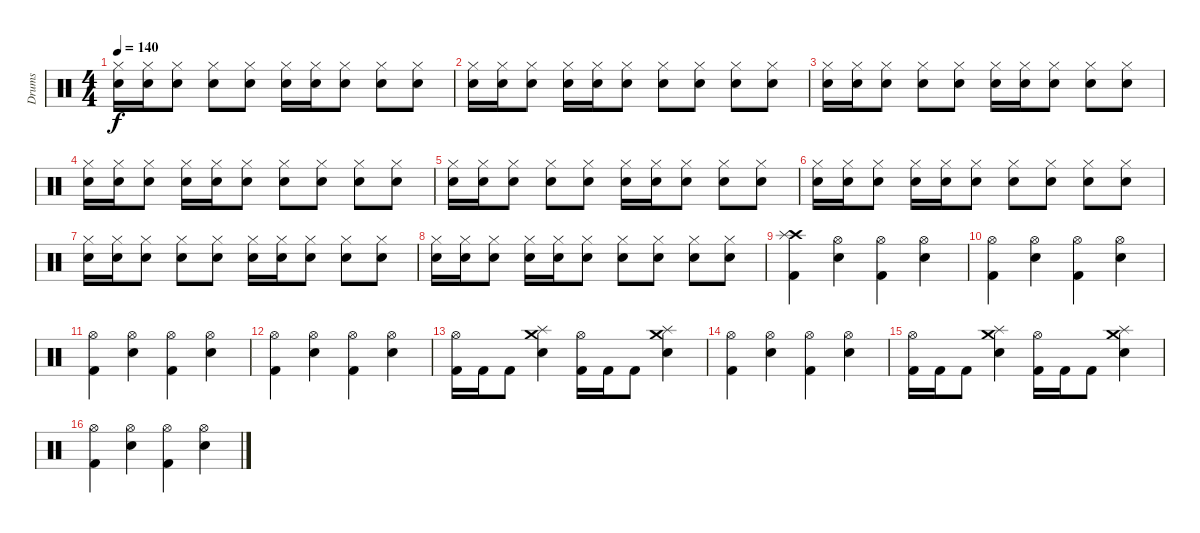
\track ("Drums" "Drums") {instrument percussion}
\staff {score}
\articulation defaults
\ts (4 4)
\tempo 140
\clef neutral
\ks c
("Hi-Hat (closed)" "Snare (hit) 2").16{dy f} ("Hi-Hat (closed)" "Snare (hit) 2").16 ("Hi-Hat (closed)" "Snare (hit) 2").8 ("Hi-Hat (closed)" "Snare (hit) 2").8 ("Hi-Hat (closed)" "Snare (hit) 2").8 ("Hi-Hat (closed)" "Snare (hit) 2").16 ("Hi-Hat (closed)" "Snare (hit) 2").16 ("Hi-Hat (closed)" "Snare (hit) 2").8 ("Hi-Hat (closed)" "Snare (hit) 2").8 ("Hi-Hat (closed)" "Snare (hit) 2").8 |
("Hi-Hat (closed)" "Snare (hit) 2").16 ("Hi-Hat (closed)" "Snare (hit) 2").16 ("Hi-Hat (closed)" "Snare (hit) 2").8 ("Hi-Hat (closed)" "Snare (hit) 2").16 ("Hi-Hat (closed)" "Snare (hit) 2").16 ("Hi-Hat (closed)" "Snare (hit) 2").8 ("Hi-Hat (closed)" "Snare (hit) 2").8 ("Hi-Hat (closed)" "Snare (hit) 2").8 ("Hi-Hat (closed)" "Snare (hit) 2").8 ("Hi-Hat (closed)" "Snare (hit) 2").8 |
("Hi-Hat (closed)" "Snare (hit) 2").16 ("Hi-Hat (closed)" "Snare (hit) 2").16 ("Hi-Hat (closed)" "Snare (hit) 2").8 ("Hi-Hat (closed)" "Snare (hit) 2").8 ("Hi-Hat (closed)" "Snare (hit) 2").8 ("Hi-Hat (closed)" "Snare (hit) 2").16 ("Hi-Hat (closed)" "Snare (hit) 2").16 ("Hi-Hat (closed)" "Snare (hit) 2").8 ("Hi-Hat (closed)" "Snare (hit) 2").8 ("Hi-Hat (closed)" "Snare (hit) 2").8 |
("Hi-Hat (closed)" "Snare (hit) 2").16 ("Hi-Hat (closed)" "Snare (hit) 2").16 ("Hi-Hat (closed)" "Snare (hit) 2").8 ("Hi-Hat (closed)" "Snare (hit) 2").16 ("Hi-Hat (closed)" "Snare (hit) 2").16 ("Hi-Hat (closed)" "Snare (hit) 2").8 ("Hi-Hat (closed)" "Snare (hit) 2").8 ("Hi-Hat (closed)" "Snare (hit) 2").8 ("Hi-Hat (closed)" "Snare (hit) 2").8 ("Hi-Hat (closed)" "Snare (hit) 2").8 |
("Hi-Hat (closed)" "Snare (hit) 2").16 ("Hi-Hat (closed)" "Snare (hit) 2").16 ("Hi-Hat (closed)" "Snare (hit) 2").8 ("Hi-Hat (closed)" "Snare (hit) 2").8 ("Hi-Hat (closed)" "Snare (hit) 2").8 ("Hi-Hat (closed)" "Snare (hit) 2").16 ("Hi-Hat (closed)" "Snare (hit) 2").16 ("Hi-Hat (closed)" "Snare (hit) 2").8 ("Hi-Hat (closed)" "Snare (hit) 2").8 ("Hi-Hat (closed)" "Snare (hit) 2").8 |
("Hi-Hat (closed)" "Snare (hit) 2").16 ("Hi-Hat (closed)" "Snare (hit) 2").16 ("Hi-Hat (closed)" "Snare (hit) 2").8 ("Hi-Hat (closed)" "Snare (hit) 2").16 ("Hi-Hat (closed)" "Snare (hit) 2").16 ("Hi-Hat (closed)" "Snare (hit) 2").8 ("Hi-Hat (closed)" "Snare (hit) 2").8 ("Hi-Hat (closed)" "Snare (hit) 2").8 ("Hi-Hat (closed)" "Snare (hit) 2").8 ("Hi-Hat (closed)" "Snare (hit) 2").8 |
("Hi-Hat (closed)" "Snare (hit) 2").16 ("Hi-Hat (closed)" "Snare (hit) 2").16 ("Hi-Hat (closed)" "Snare (hit) 2").8 ("Hi-Hat (closed)" "Snare (hit) 2").8 ("Hi-Hat (closed)" "Snare (hit) 2").8 ("Hi-Hat (closed)" "Snare (hit) 2").16 ("Hi-Hat (closed)" "Snare (hit) 2").16 ("Hi-Hat (closed)" "Snare (hit) 2").8 ("Hi-Hat (closed)" "Snare (hit) 2").8 ("Hi-Hat (closed)" "Snare (hit) 2").8 |
("Hi-Hat (closed)" "Snare (hit) 2").16 ("Hi-Hat (closed)" "Snare (hit) 2").16 ("Hi-Hat (closed)" "Snare (hit) 2").8 ("Hi-Hat (closed)" "Snare (hit) 2").16 ("Hi-Hat (closed)" "Snare (hit) 2").16 ("Hi-Hat (closed)" "Snare (hit) 2").8 ("Hi-Hat (closed)" "Snare (hit) 2").8 ("Hi-Hat (closed)" "Snare (hit) 2").8 ("Hi-Hat (closed)" "Snare (hit) 2").8 ("Hi-Hat (closed)" "Snare (hit) 2").8 |
("Crash high (hit)" "Splash (hit)" "Kick (hit) 2").4 ("Hi-Hat (open)" "Snare (hit) 2").4 ("Hi-Hat (open)" "Kick (hit) 2").4 ("Hi-Hat (open)" "Snare (hit) 2").4 |
("Hi-Hat (open)" "Kick (hit) 2").4 ("Hi-Hat (open)" "Snare (hit) 2").4 ("Hi-Hat (open)" "Kick (hit) 2").4 ("Hi-Hat (open)" "Snare (hit) 2").4 |
("Hi-Hat (open)" "Kick (hit) 2").4 ("Hi-Hat (open)" "Snare (hit) 2").4 ("Hi-Hat (open)" "Kick (hit) 2").4 ("Hi-Hat (open)" "Snare (hit) 2").4 |
("Hi-Hat (open)" "Kick (hit) 2").4 ("Hi-Hat (open)" "Snare (hit) 2").4 ("Hi-Hat (open)" "Kick (hit) 2").4 ("Hi-Hat (open)" "Snare (hit) 2").4 |
("Hi-Hat (open)" "Kick (hit) 2").16 "Kick (hit) 2".16 "Kick (hit) 2".8 ("Crash medium (hit)" "Splash (hit)" "Snare (hit) 2").4 ("Hi-Hat (open)" "Kick (hit) 2").16 "Kick (hit) 2".16 "Kick (hit) 2".8 ("Crash medium (hit)" "Splash (hit)" "Snare (hit) 2").4 |
("Hi-Hat (open)" "Kick (hit) 2").4 ("Hi-Hat (open)" "Snare (hit) 2").4 ("Hi-Hat (open)" "Kick (hit) 2").4 ("Hi-Hat (open)" "Snare (hit) 2").4 |
("Hi-Hat (open)" "Kick (hit) 2").16 "Kick (hit) 2".16 "Kick (hit) 2".8 ("Crash medium (hit)" "Splash (hit)" "Snare (hit) 2").4 ("Hi-Hat (open)" "Kick (hit) 2").16 "Kick (hit) 2".16 "Kick (hit) 2".8 ("Crash medium (hit)" "Splash (hit)" "Snare (hit) 2").4 |
("Hi-Hat (open)" "Kick (hit) 2").4 ("Hi-Hat (open)" "Snare (hit) 2").4 ("Hi-Hat (open)" "Kick (hit) 2").4 ("Hi-Hat (open)" "Snare (hit) 2").4
